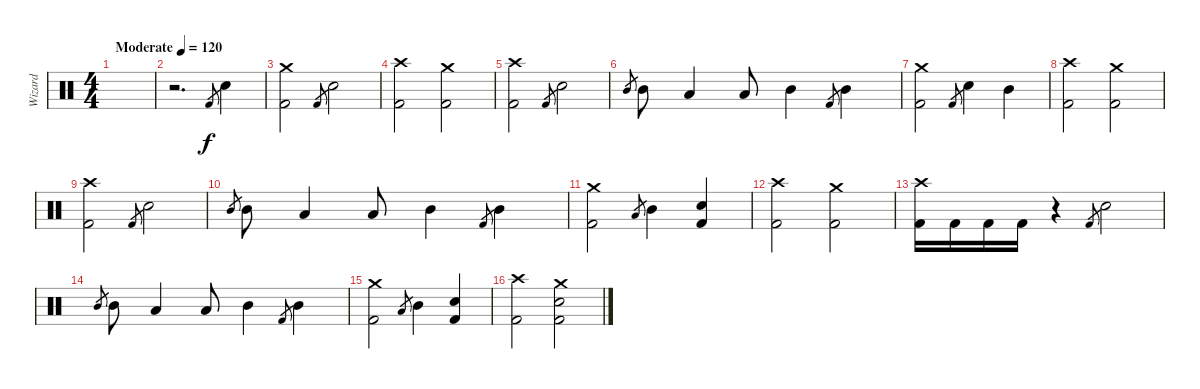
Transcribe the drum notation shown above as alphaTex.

\track ("Wizard" "Wizard") {instrument percussion}
\staff {score}
\articulation defaults
\ts (4 4)
\tempo (120 "Moderate")
\clef neutral
\ks c
|
r.2{d} "Kick (hit) 2".8{gr} "Snare (hit) 2".4 |
("Crash medium (hit)" "Kick (hit) 2").2 "Kick (hit) 2".8{gr} "Snare (hit) 2".2 |
("Crash high (hit)" "Kick (hit) 2").2 ("Crash medium (hit)" "Kick (hit) 2").2 |
("Crash high (hit)" "Kick (hit) 2").2 "Kick (hit) 2".8{gr} "Snare (hit) 2".2 |
"Mid Tom (hit)".8{gr} "Mid Tom (hit)".8 "Low Tom (hit)".4 "Low Tom (hit)".8 "Mid Tom (hit)".4 "Kick (hit) 2".8{gr} "Mid Tom (hit)".4 |
("Crash medium (hit)" "Kick (hit) 2").2 "Kick (hit) 2".8{gr} "Snare (hit) 2".4 "Mid Tom (hit)".4 |
("Crash high (hit)" "Kick (hit) 2").2 ("Crash medium (hit)" "Kick (hit) 2").2 |
("Crash high (hit)" "Kick (hit) 2").2 "Kick (hit) 2".8{gr} "Snare (hit) 2".2 |
"Mid Tom (hit)".8{gr} "Mid Tom (hit)".8 "Low Tom (hit)".4 "Low Tom (hit)".8 "Mid Tom (hit)".4 "Kick (hit) 2".8{gr} "Mid Tom (hit)".4 |
("Crash medium (hit)" "Kick (hit) 2").2 "Low Tom (hit)".8{gr} "Mid Tom (hit)".4 ("Snare (hit) 2" "Kick (hit) 2").4 |
("Crash high (hit)" "Kick (hit) 2").2 ("Crash medium (hit)" "Kick (hit) 2").2 |
("Crash high (hit)" "Kick (hit) 2").16 "Kick (hit) 2".16 "Kick (hit) 2".16 "Kick (hit) 2".16 r.4 "Kick (hit) 2".8{gr} "Snare (hit) 2".2 |
"Mid Tom (hit)".8{gr} "Mid Tom (hit)".8 "Low Tom (hit)".4 "Low Tom (hit)".8 "Mid Tom (hit)".4 "Kick (hit) 2".8{gr} "Mid Tom (hit)".4 |
("Crash medium (hit)" "Kick (hit) 2").2 "Low Tom (hit)".8{gr} "Mid Tom (hit)".4 ("Snare (hit) 2" "Kick (hit) 2").4 |
("Crash high (hit)" "Kick (hit) 2").2 ("Crash medium (hit)" "Snare (hit) 2" "Kick (hit) 2").2
